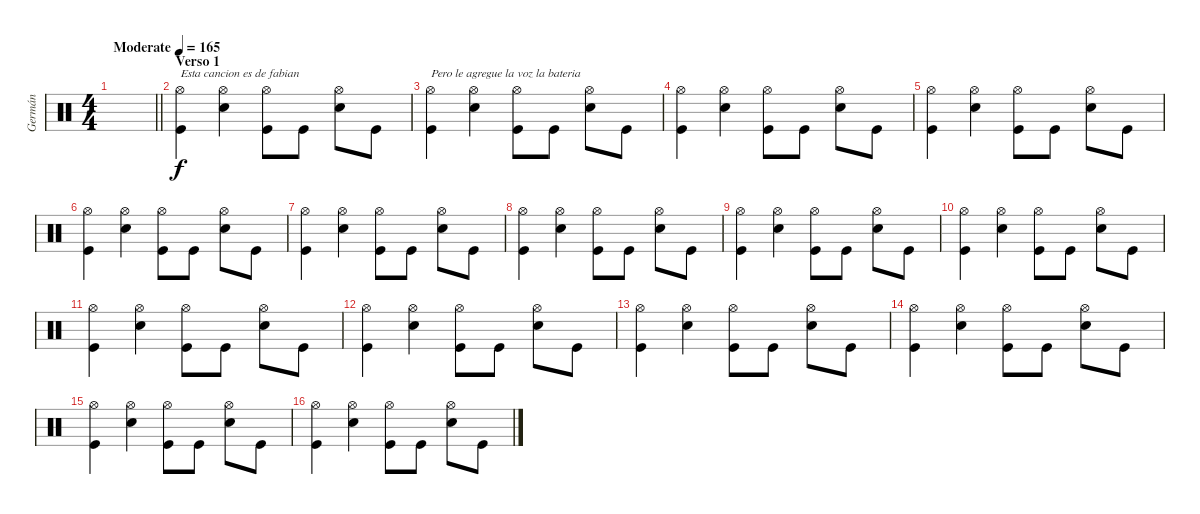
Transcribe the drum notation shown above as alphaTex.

\track ("Germán" "Germán") {instrument percussion}
\staff {score}
\articulation defaults
\ts (4 4)
\tempo (165 "Moderate")
\clef neutral
\barLineRight lightlight
\ks c
|
\section ("" "Verso 1")
("Hi-Hat (open)" "Kick (hit)").4{txt "Esta cancion es de fabian"} ("Hi-Hat (open)" "Electric Snare (hit)").4 ("Hi-Hat (open)" "Kick (hit)").8 "Kick (hit)".8 ("Hi-Hat (open)" "Electric Snare (hit)").8 "Kick (hit)".8 |
("Hi-Hat (open)" "Kick (hit)").4{txt "Pero le agregue la voz la bateria"} ("Hi-Hat (open)" "Electric Snare (hit)").4 ("Hi-Hat (open)" "Kick (hit)").8 "Kick (hit)".8 ("Hi-Hat (open)" "Electric Snare (hit)").8 "Kick (hit)".8 |
("Hi-Hat (open)" "Kick (hit)").4 ("Hi-Hat (open)" "Electric Snare (hit)").4 ("Hi-Hat (open)" "Kick (hit)").8 "Kick (hit)".8 ("Hi-Hat (open)" "Electric Snare (hit)").8 "Kick (hit)".8 |
("Hi-Hat (open)" "Kick (hit)").4 ("Hi-Hat (open)" "Electric Snare (hit)").4 ("Hi-Hat (open)" "Kick (hit)").8 "Kick (hit)".8 ("Hi-Hat (open)" "Electric Snare (hit)").8 "Kick (hit)".8 |
("Hi-Hat (open)" "Kick (hit)").4 ("Hi-Hat (open)" "Electric Snare (hit)").4 ("Hi-Hat (open)" "Kick (hit)").8 "Kick (hit)".8 ("Hi-Hat (open)" "Electric Snare (hit)").8 "Kick (hit)".8 |
("Hi-Hat (open)" "Kick (hit)").4 ("Hi-Hat (open)" "Electric Snare (hit)").4 ("Hi-Hat (open)" "Kick (hit)").8 "Kick (hit)".8 ("Hi-Hat (open)" "Electric Snare (hit)").8 "Kick (hit)".8 |
("Hi-Hat (open)" "Kick (hit)").4 ("Hi-Hat (open)" "Electric Snare (hit)").4 ("Hi-Hat (open)" "Kick (hit)").8 "Kick (hit)".8 ("Hi-Hat (open)" "Electric Snare (hit)").8 "Kick (hit)".8 |
("Hi-Hat (open)" "Kick (hit)").4 ("Hi-Hat (open)" "Electric Snare (hit)").4 ("Hi-Hat (open)" "Kick (hit)").8 "Kick (hit)".8 ("Hi-Hat (open)" "Electric Snare (hit)").8 "Kick (hit)".8 |
("Hi-Hat (open)" "Kick (hit)").4 ("Hi-Hat (open)" "Electric Snare (hit)").4 ("Hi-Hat (open)" "Kick (hit)").8 "Kick (hit)".8 ("Hi-Hat (open)" "Electric Snare (hit)").8 "Kick (hit)".8 |
("Hi-Hat (open)" "Kick (hit)").4 ("Hi-Hat (open)" "Electric Snare (hit)").4 ("Hi-Hat (open)" "Kick (hit)").8 "Kick (hit)".8 ("Hi-Hat (open)" "Electric Snare (hit)").8 "Kick (hit)".8 |
("Hi-Hat (open)" "Kick (hit)").4 ("Hi-Hat (open)" "Electric Snare (hit)").4 ("Hi-Hat (open)" "Kick (hit)").8 "Kick (hit)".8 ("Hi-Hat (open)" "Electric Snare (hit)").8 "Kick (hit)".8 |
("Hi-Hat (open)" "Kick (hit)").4 ("Hi-Hat (open)" "Electric Snare (hit)").4 ("Hi-Hat (open)" "Kick (hit)").8 "Kick (hit)".8 ("Hi-Hat (open)" "Electric Snare (hit)").8 "Kick (hit)".8 |
("Hi-Hat (open)" "Kick (hit)").4 ("Hi-Hat (open)" "Electric Snare (hit)").4 ("Hi-Hat (open)" "Kick (hit)").8 "Kick (hit)".8 ("Hi-Hat (open)" "Electric Snare (hit)").8 "Kick (hit)".8 |
("Hi-Hat (open)" "Kick (hit)").4 ("Hi-Hat (open)" "Electric Snare (hit)").4 ("Hi-Hat (open)" "Kick (hit)").8 "Kick (hit)".8 ("Hi-Hat (open)" "Electric Snare (hit)").8 "Kick (hit)".8 |
("Hi-Hat (open)" "Kick (hit)").4 ("Hi-Hat (open)" "Electric Snare (hit)").4 ("Hi-Hat (open)" "Kick (hit)").8 "Kick (hit)".8 ("Hi-Hat (open)" "Electric Snare (hit)").8 "Kick (hit)".8
